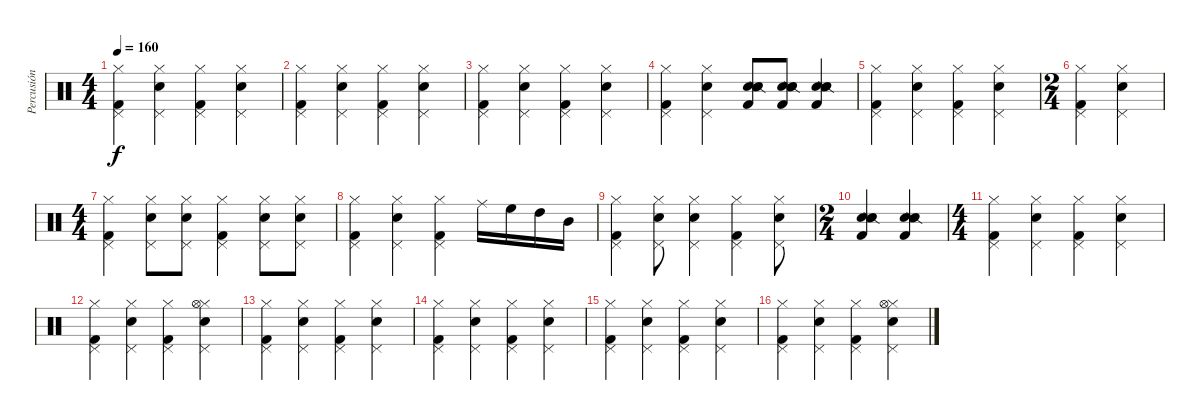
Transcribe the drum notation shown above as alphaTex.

\track ("Percusión" "Percusión") {instrument percussion}
\staff {score}
\articulation defaults
\ts (4 4)
\tempo 160
\clef neutral
\ks c
("Hi-Hat (closed)" "Kick (hit) 2" "Pedal Hi-Hat (hit)").4{dy f} ("Hi-Hat (closed)" "Snare (hit) 2" "Pedal Hi-Hat (hit)").4 ("Hi-Hat (closed)" "Kick (hit) 2" "Pedal Hi-Hat (hit)").4 ("Hi-Hat (closed)" "Snare (hit) 2" "Pedal Hi-Hat (hit)").4 |
("Hi-Hat (closed)" "Kick (hit) 2" "Pedal Hi-Hat (hit)").4 ("Hi-Hat (closed)" "Snare (hit) 2" "Pedal Hi-Hat (hit)").4 ("Hi-Hat (closed)" "Kick (hit) 2" "Pedal Hi-Hat (hit)").4 ("Hi-Hat (closed)" "Snare (hit) 2" "Pedal Hi-Hat (hit)").4 |
("Hi-Hat (closed)" "Kick (hit) 2" "Pedal Hi-Hat (hit)").4 ("Hi-Hat (closed)" "Snare (hit) 2" "Pedal Hi-Hat (hit)").4 ("Hi-Hat (closed)" "Kick (hit) 2" "Pedal Hi-Hat (hit)").4 ("Hi-Hat (closed)" "Snare (hit) 2" "Pedal Hi-Hat (hit)").4 |
("Hi-Hat (closed)" "Kick (hit) 2" "Pedal Hi-Hat (hit)").4 ("Hi-Hat (closed)" "Snare (hit) 2" "Pedal Hi-Hat (hit)").4 ("Snare (hit) 2" "Kick (hit) 2" "Snare (side stick) 2" "Electric Snare (hit)").8 ("Snare (hit) 2" "Kick (hit) 2" "Snare (side stick) 2" "Electric Snare (hit)").8 ("Snare (hit) 2" "Kick (hit) 2" "Snare (side stick) 2" "Electric Snare (hit)").4 |
("Hi-Hat (closed)" "Kick (hit) 2" "Pedal Hi-Hat (hit)").4 ("Hi-Hat (closed)" "Snare (hit) 2" "Pedal Hi-Hat (hit)").4 ("Hi-Hat (closed)" "Kick (hit) 2" "Pedal Hi-Hat (hit)").4 ("Hi-Hat (closed)" "Snare (hit) 2" "Pedal Hi-Hat (hit)").4 |
\ts (2 4)
("Hi-Hat (closed)" "Kick (hit) 2" "Pedal Hi-Hat (hit)").4 ("Hi-Hat (closed)" "Snare (hit) 2" "Pedal Hi-Hat (hit)").4 |
\ts (4 4)
("Hi-Hat (closed)" "Kick (hit) 2" "Pedal Hi-Hat (hit)").4 ("Hi-Hat (closed)" "Snare (hit) 2" "Pedal Hi-Hat (hit)").8 ("Hi-Hat (closed)" "Snare (hit) 2" "Pedal Hi-Hat (hit)").8 ("Hi-Hat (closed)" "Kick (hit) 2" "Pedal Hi-Hat (hit)").4 ("Hi-Hat (closed)" "Snare (hit) 2" "Pedal Hi-Hat (hit)").8 ("Hi-Hat (closed)" "Snare (hit) 2" "Pedal Hi-Hat (hit)").8 |
("Hi-Hat (closed)" "Kick (hit) 2" "Pedal Hi-Hat (hit)").4 ("Hi-Hat (closed)" "Snare (hit) 2" "Pedal Hi-Hat (hit)").4 ("Hi-Hat (closed)" "Kick (hit) 2" "Pedal Hi-Hat (hit)").4 "Ride (middle)".16 "High Floor Tom (hit)".16 "High Tom (hit)".16 "Mid Tom (hit)".16 |
("Hi-Hat (closed)" "Kick (hit) 2" "Pedal Hi-Hat (hit)").4 ("Hi-Hat (closed)" "Snare (hit) 2" "Pedal Hi-Hat (hit)").8 ("Hi-Hat (closed)" "Snare (hit) 2" "Pedal Hi-Hat (hit)").4 ("Hi-Hat (closed)" "Kick (hit) 2" "Pedal Hi-Hat (hit)").4 ("Hi-Hat (closed)" "Snare (hit) 2" "Pedal Hi-Hat (hit)").8 |
\ts (2 4)
("Snare (hit) 2" "Kick (hit) 2" "Snare (side stick) 2" "Electric Snare (hit)").4 ("Snare (hit) 2" "Kick (hit) 2" "Snare (side stick) 2" "Electric Snare (hit)").4 |
\ts (4 4)
("Hi-Hat (closed)" "Kick (hit) 2" "Pedal Hi-Hat (hit)").4 ("Hi-Hat (closed)" "Snare (hit) 2" "Pedal Hi-Hat (hit)").4 ("Hi-Hat (closed)" "Kick (hit) 2" "Pedal Hi-Hat (hit)").4 ("Hi-Hat (closed)" "Snare (hit) 2" "Pedal Hi-Hat (hit)").4 |
("Hi-Hat (closed)" "Kick (hit) 2" "Pedal Hi-Hat (hit)").4 ("Hi-Hat (closed)" "Snare (hit) 2" "Pedal Hi-Hat (hit)").4 ("Hi-Hat (closed)" "Kick (hit) 2" "Pedal Hi-Hat (hit)").4 ("Hi-Hat (closed)" "Snare (hit) 2" "Pedal Hi-Hat (hit)" "Hi-Hat (open)").4 |
("Hi-Hat (closed)" "Kick (hit) 2" "Pedal Hi-Hat (hit)").4 ("Hi-Hat (closed)" "Snare (hit) 2" "Pedal Hi-Hat (hit)").4 ("Hi-Hat (closed)" "Kick (hit) 2" "Pedal Hi-Hat (hit)").4 ("Hi-Hat (closed)" "Snare (hit) 2" "Pedal Hi-Hat (hit)").4 |
("Hi-Hat (closed)" "Kick (hit) 2" "Pedal Hi-Hat (hit)").4 ("Hi-Hat (closed)" "Snare (hit) 2" "Pedal Hi-Hat (hit)").4 ("Hi-Hat (closed)" "Kick (hit) 2" "Pedal Hi-Hat (hit)").4 ("Hi-Hat (closed)" "Snare (hit) 2" "Pedal Hi-Hat (hit)").4 |
("Hi-Hat (closed)" "Kick (hit) 2" "Pedal Hi-Hat (hit)").4 ("Hi-Hat (closed)" "Snare (hit) 2" "Pedal Hi-Hat (hit)").4 ("Hi-Hat (closed)" "Kick (hit) 2" "Pedal Hi-Hat (hit)").4 ("Hi-Hat (closed)" "Snare (hit) 2" "Pedal Hi-Hat (hit)").4 |
("Hi-Hat (closed)" "Kick (hit) 2" "Pedal Hi-Hat (hit)").4 ("Hi-Hat (closed)" "Snare (hit) 2" "Pedal Hi-Hat (hit)").4 ("Hi-Hat (closed)" "Kick (hit) 2" "Pedal Hi-Hat (hit)").4 ("Hi-Hat (closed)" "Snare (hit) 2" "Pedal Hi-Hat (hit)" "Hi-Hat (open)").4
